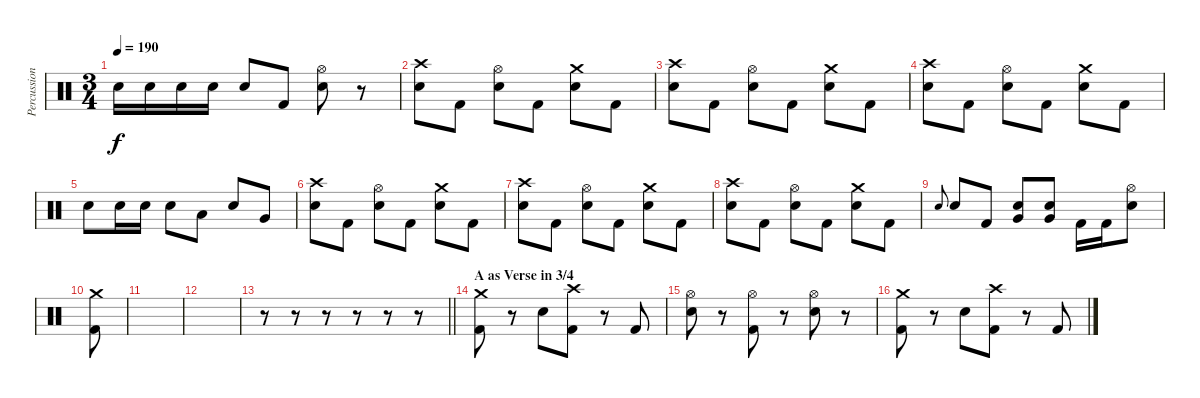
\track ("Percussion" "Percussion") {instrument percussion}
\staff {score}
\articulation defaults
\ts (3 4)
\tempo 190
\clef neutral
\ks c "Electric Snare (hit)".16{dy f} "Electric Snare (hit)".16 "Electric Snare (hit)".16 "Electric Snare (hit)".16 "Electric Snare (hit)".8 "Kick (hit) 2".8
("Hi-Hat (open)" "Electric Snare (hit)").8 r.8 |
("Crash high (hit)" "Electric Snare (hit)").8 "Kick (hit) 2".8 ("Hi-Hat (open)" "Electric Snare (hit)").8 "Kick (hit) 2".8 ("Crash medium (hit)" "Electric Snare (hit)").8 "Kick (hit) 2".8 |
("Crash high (hit)" "Electric Snare (hit)").8 "Kick (hit) 2".8 ("Hi-Hat (open)" "Electric Snare (hit)").8 "Kick (hit) 2".8 ("Crash medium (hit)" "Electric Snare (hit)").8 "Kick (hit) 2".8 |
("Crash high (hit)" "Electric Snare (hit)").8 "Kick (hit) 2".8 ("Hi-Hat (open)" "Electric Snare (hit)").8 "Kick (hit) 2".8 ("Crash medium (hit)" "Electric Snare (hit)").8 "Kick (hit) 2".8 |
"Electric Snare (hit)".8 "Electric Snare (hit)".16 "Electric Snare (hit)".16 "Electric Snare (hit)".8 "Low Tom (hit)".8 "Electric Snare (hit)".8 "Very Low Tom (hit)".8 |
("Crash high (hit)" "Electric Snare (hit)").8 "Kick (hit) 2".8 ("Hi-Hat (open)" "Electric Snare (hit)").8 "Kick (hit) 2".8 ("Crash medium (hit)" "Electric Snare (hit)").8 "Kick (hit) 2".8 |
("Crash high (hit)" "Electric Snare (hit)").8 "Kick (hit) 2".8 ("Hi-Hat (open)" "Electric Snare (hit)").8 "Kick (hit) 2".8 ("Crash medium (hit)" "Electric Snare (hit)").8 "Kick (hit) 2".8 |
("Crash high (hit)" "Electric Snare (hit)").8 "Kick (hit) 2".8 ("Hi-Hat (open)" "Electric Snare (hit)").8 "Kick (hit) 2".8 ("Crash medium (hit)" "Electric Snare (hit)").8 "Kick (hit) 2".8 |
"Electric Snare (hit)".8{gr onbeat} "Electric Snare (hit)".8 "Kick (hit) 2".8 ("Very Low Tom (hit)" "Electric Snare (hit)").8 ("Very Low Tom (hit)" "Electric Snare (hit)").8 "Kick (hit) 2".16 "Kick (hit) 2".16 ("Hi-Hat (open)" "Electric Snare (hit)").8 |
("Crash medium (hit)" "Kick (hit) 2").8 |
|
|
\barLineRight lightlight
r.8 r.8 r.8 r.8 r.8 r.8 |
\section ("" "A as Verse in 3/4")
("Crash medium (hit)" "Kick (hit) 2").8 r.8 "Electric Snare (hit)".8 ("Crash high (hit)" "Kick (hit) 2").8 r.8 "Kick (hit) 2".8 |
("Hi-Hat (open)" "Electric Snare (hit)").8 r.8 ("Hi-Hat (open)" "Kick (hit) 2").8 r.8 ("Hi-Hat (open)" "Electric Snare (hit)").8 r.8 |
("Crash medium (hit)" "Kick (hit) 2").8 r.8 "Electric Snare (hit)".8 ("Crash high (hit)" "Kick (hit) 2").8 r.8 "Kick (hit) 2".8
